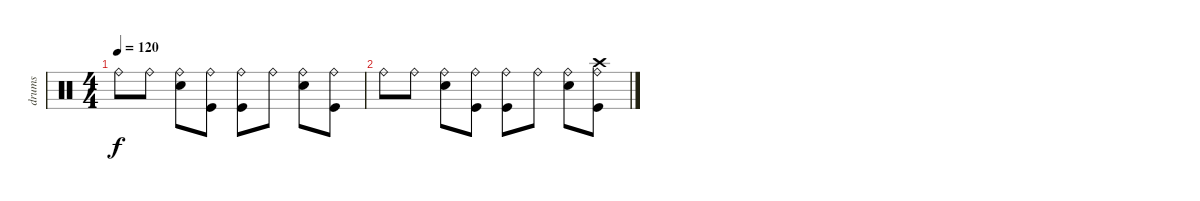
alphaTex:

\track ("drums" "drums") {instrument percussion}
\staff {score}
\articulation defaults
\ts (4 4)
\tempo 120
\clef neutral
\ks c "Ride (bell)".8{dy f} "Ride (bell)".8
("Electric Snare (hit)" "Ride (bell)").8 ("Kick (hit)" "Ride (bell)").8 ("Kick (hit)" "Ride (bell)").8 "Ride (bell)".8 ("Electric Snare (hit)" "Ride (bell)").8 ("Kick (hit)" "Ride (bell)").8 |
"Ride (bell)".8 "Ride (bell)".8 ("Electric Snare (hit)" "Ride (bell)").8 ("Kick (hit)" "Ride (bell)").8 ("Kick (hit)" "Ride (bell)").8 "Ride (bell)".8 ("Electric Snare (hit)" "Ride (bell)").8 ("Kick (hit)" "Ride (bell)" "Crash high (hit)").8
